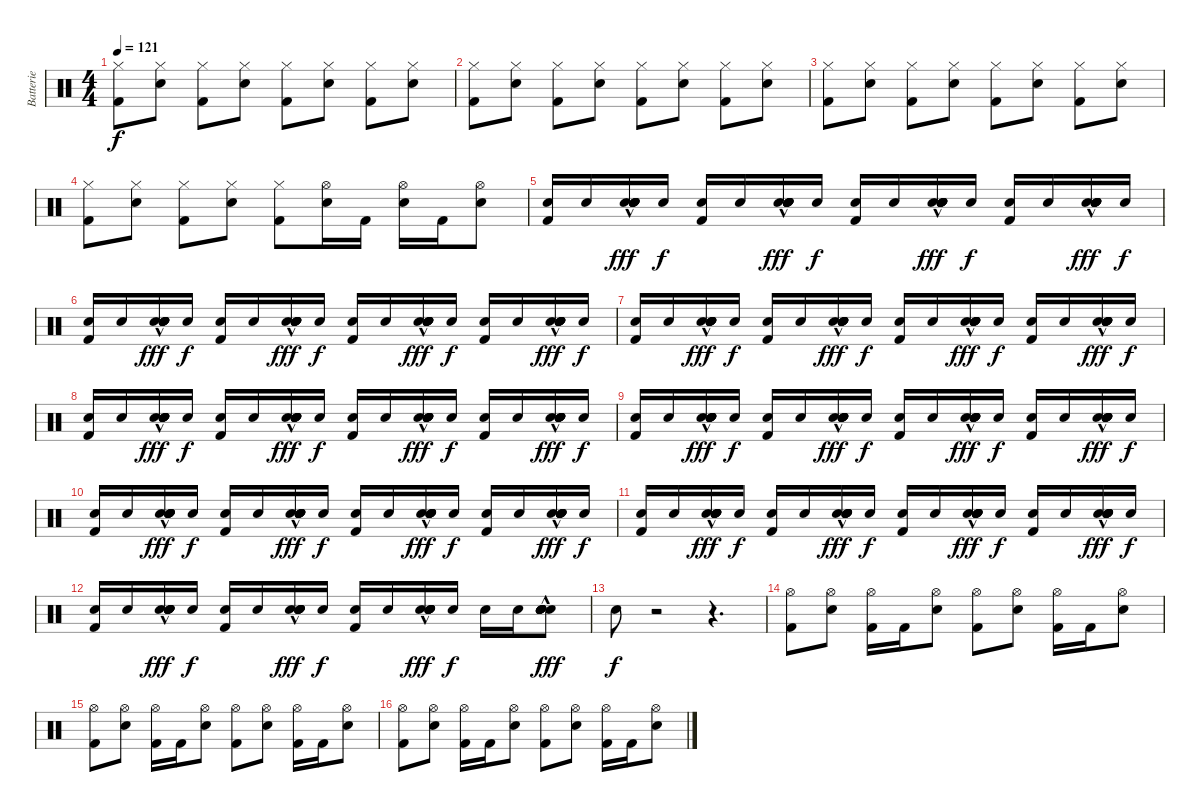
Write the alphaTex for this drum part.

\track ("Batterie" "Batterie") {instrument percussion}
\staff {score}
\articulation defaults
\ts (4 4)
\tempo 121
\clef neutral
\ks c
("Kick (hit) 2" "Hi-Hat (closed)").8{dy f} ("Electric Snare (hit)" "Hi-Hat (closed)").8 ("Kick (hit) 2" "Hi-Hat (closed)").8 ("Electric Snare (hit)" "Hi-Hat (closed)").8 ("Kick (hit) 2" "Hi-Hat (closed)").8 ("Electric Snare (hit)" "Hi-Hat (closed)").8 ("Kick (hit) 2" "Hi-Hat (closed)").8 ("Electric Snare (hit)" "Hi-Hat (closed)").8 |
("Kick (hit) 2" "Hi-Hat (closed)").8 ("Electric Snare (hit)" "Hi-Hat (closed)").8 ("Kick (hit) 2" "Hi-Hat (closed)").8 ("Electric Snare (hit)" "Hi-Hat (closed)").8 ("Kick (hit) 2" "Hi-Hat (closed)").8 ("Electric Snare (hit)" "Hi-Hat (closed)").8 ("Kick (hit) 2" "Hi-Hat (closed)").8 ("Electric Snare (hit)" "Hi-Hat (closed)").8 |
("Kick (hit) 2" "Hi-Hat (closed)").8 ("Electric Snare (hit)" "Hi-Hat (closed)").8 ("Kick (hit) 2" "Hi-Hat (closed)").8 ("Electric Snare (hit)" "Hi-Hat (closed)").8 ("Kick (hit) 2" "Hi-Hat (closed)").8 ("Electric Snare (hit)" "Hi-Hat (closed)").8 ("Kick (hit) 2" "Hi-Hat (closed)").8 ("Electric Snare (hit)" "Hi-Hat (closed)").8 |
("Kick (hit) 2" "Hi-Hat (closed)").8 ("Electric Snare (hit)" "Hi-Hat (closed)").8 ("Kick (hit) 2" "Hi-Hat (closed)").8 ("Electric Snare (hit)" "Hi-Hat (closed)").8 ("Kick (hit) 2" "Hi-Hat (closed)").8 ("Hi-Hat (open)" "Electric Snare (hit)").16 "Kick (hit) 2".16 ("Hi-Hat (open)" "Electric Snare (hit)").16 "Kick (hit) 2".16 ("Hi-Hat (open)" "Electric Snare (hit)").8 |
("Kick (hit) 2" "Electric Snare (hit)").16 "Electric Snare (hit)".16 ("Electric Snare (hit)"{hac} "Electric Snare (hit)"{hac} "Electric Snare (hit)"{hac} "Electric Snare (hit)"{hac} "Electric Snare (hit)"{hac} "Electric Snare (hit)"{hac}).16{dy fff} "Electric Snare (hit)".16{dy f} ("Kick (hit) 2" "Electric Snare (hit)").16 "Electric Snare (hit)".16 ("Electric Snare (hit)"{hac} "Electric Snare (hit)"{hac} "Electric Snare (hit)"{hac} "Electric Snare (hit)"{hac} "Electric Snare (hit)"{hac} "Electric Snare (hit)"{hac}).16{dy fff} "Electric Snare (hit)".16{dy f} ("Kick (hit) 2" "Electric Snare (hit)").16 "Electric Snare (hit)".16 ("Electric Snare (hit)"{hac} "Electric Snare (hit)"{hac} "Electric Snare (hit)"{hac} "Electric Snare (hit)"{hac} "Electric Snare (hit)"{hac} "Electric Snare (hit)"{hac}).16{dy fff} "Electric Snare (hit)".16{dy f} ("Kick (hit) 2" "Electric Snare (hit)").16 "Electric Snare (hit)".16 ("Electric Snare (hit)"{hac} "Electric Snare (hit)"{hac} "Electric Snare (hit)"{hac} "Electric Snare (hit)"{hac} "Electric Snare (hit)"{hac} "Electric Snare (hit)"{hac}).16{dy fff} "Electric Snare (hit)".16{dy f} |
("Kick (hit) 2" "Electric Snare (hit)").16 "Electric Snare (hit)".16 ("Electric Snare (hit)"{hac} "Electric Snare (hit)"{hac} "Electric Snare (hit)"{hac} "Electric Snare (hit)"{hac} "Electric Snare (hit)"{hac} "Electric Snare (hit)"{hac}).16{dy fff} "Electric Snare (hit)".16{dy f} ("Kick (hit) 2" "Electric Snare (hit)").16 "Electric Snare (hit)".16 ("Electric Snare (hit)"{hac} "Electric Snare (hit)"{hac} "Electric Snare (hit)"{hac} "Electric Snare (hit)"{hac} "Electric Snare (hit)"{hac} "Electric Snare (hit)"{hac}).16{dy fff} "Electric Snare (hit)".16{dy f} ("Kick (hit) 2" "Electric Snare (hit)").16 "Electric Snare (hit)".16 ("Electric Snare (hit)"{hac} "Electric Snare (hit)"{hac} "Electric Snare (hit)"{hac} "Electric Snare (hit)"{hac} "Electric Snare (hit)"{hac} "Electric Snare (hit)"{hac}).16{dy fff} "Electric Snare (hit)".16{dy f} ("Kick (hit) 2" "Electric Snare (hit)").16 "Electric Snare (hit)".16 ("Electric Snare (hit)"{hac} "Electric Snare (hit)"{hac} "Electric Snare (hit)"{hac} "Electric Snare (hit)"{hac} "Electric Snare (hit)"{hac} "Electric Snare (hit)"{hac}).16{dy fff} "Electric Snare (hit)".16{dy f} |
("Kick (hit) 2" "Electric Snare (hit)").16 "Electric Snare (hit)".16 ("Electric Snare (hit)"{hac} "Electric Snare (hit)"{hac} "Electric Snare (hit)"{hac} "Electric Snare (hit)"{hac} "Electric Snare (hit)"{hac} "Electric Snare (hit)"{hac}).16{dy fff} "Electric Snare (hit)".16{dy f} ("Kick (hit) 2" "Electric Snare (hit)").16 "Electric Snare (hit)".16 ("Electric Snare (hit)"{hac} "Electric Snare (hit)"{hac} "Electric Snare (hit)"{hac} "Electric Snare (hit)"{hac} "Electric Snare (hit)"{hac} "Electric Snare (hit)"{hac}).16{dy fff} "Electric Snare (hit)".16{dy f} ("Kick (hit) 2" "Electric Snare (hit)").16 "Electric Snare (hit)".16 ("Electric Snare (hit)"{hac} "Electric Snare (hit)"{hac} "Electric Snare (hit)"{hac} "Electric Snare (hit)"{hac} "Electric Snare (hit)"{hac} "Electric Snare (hit)"{hac}).16{dy fff} "Electric Snare (hit)".16{dy f} ("Kick (hit) 2" "Electric Snare (hit)").16 "Electric Snare (hit)".16 ("Electric Snare (hit)"{hac} "Electric Snare (hit)"{hac} "Electric Snare (hit)"{hac} "Electric Snare (hit)"{hac} "Electric Snare (hit)"{hac} "Electric Snare (hit)"{hac}).16{dy fff} "Electric Snare (hit)".16{dy f} |
("Kick (hit) 2" "Electric Snare (hit)").16 "Electric Snare (hit)".16 ("Electric Snare (hit)"{hac} "Electric Snare (hit)"{hac} "Electric Snare (hit)"{hac} "Electric Snare (hit)"{hac} "Electric Snare (hit)"{hac} "Electric Snare (hit)"{hac}).16{dy fff} "Electric Snare (hit)".16{dy f} ("Kick (hit) 2" "Electric Snare (hit)").16 "Electric Snare (hit)".16 ("Electric Snare (hit)"{hac} "Electric Snare (hit)"{hac} "Electric Snare (hit)"{hac} "Electric Snare (hit)"{hac} "Electric Snare (hit)"{hac} "Electric Snare (hit)"{hac}).16{dy fff} "Electric Snare (hit)".16{dy f} ("Kick (hit) 2" "Electric Snare (hit)").16 "Electric Snare (hit)".16 ("Electric Snare (hit)"{hac} "Electric Snare (hit)"{hac} "Electric Snare (hit)"{hac} "Electric Snare (hit)"{hac} "Electric Snare (hit)"{hac} "Electric Snare (hit)"{hac}).16{dy fff} "Electric Snare (hit)".16{dy f} ("Kick (hit) 2" "Electric Snare (hit)").16 "Electric Snare (hit)".16 ("Electric Snare (hit)"{hac} "Electric Snare (hit)"{hac} "Electric Snare (hit)"{hac} "Electric Snare (hit)"{hac} "Electric Snare (hit)"{hac} "Electric Snare (hit)"{hac}).16{dy fff} "Electric Snare (hit)".16{dy f} |
("Kick (hit) 2" "Electric Snare (hit)").16 "Electric Snare (hit)".16 ("Electric Snare (hit)"{hac} "Electric Snare (hit)"{hac} "Electric Snare (hit)"{hac} "Electric Snare (hit)"{hac} "Electric Snare (hit)"{hac} "Electric Snare (hit)"{hac}).16{dy fff} "Electric Snare (hit)".16{dy f} ("Kick (hit) 2" "Electric Snare (hit)").16 "Electric Snare (hit)".16 ("Electric Snare (hit)"{hac} "Electric Snare (hit)"{hac} "Electric Snare (hit)"{hac} "Electric Snare (hit)"{hac} "Electric Snare (hit)"{hac} "Electric Snare (hit)"{hac}).16{dy fff} "Electric Snare (hit)".16{dy f} ("Kick (hit) 2" "Electric Snare (hit)").16 "Electric Snare (hit)".16 ("Electric Snare (hit)"{hac} "Electric Snare (hit)"{hac} "Electric Snare (hit)"{hac} "Electric Snare (hit)"{hac} "Electric Snare (hit)"{hac} "Electric Snare (hit)"{hac}).16{dy fff} "Electric Snare (hit)".16{dy f} ("Kick (hit) 2" "Electric Snare (hit)").16 "Electric Snare (hit)".16 ("Electric Snare (hit)"{hac} "Electric Snare (hit)"{hac} "Electric Snare (hit)"{hac} "Electric Snare (hit)"{hac} "Electric Snare (hit)"{hac} "Electric Snare (hit)"{hac}).16{dy fff} "Electric Snare (hit)".16{dy f} |
("Kick (hit) 2" "Electric Snare (hit)").16 "Electric Snare (hit)".16 ("Electric Snare (hit)"{hac} "Electric Snare (hit)"{hac} "Electric Snare (hit)"{hac} "Electric Snare (hit)"{hac} "Electric Snare (hit)"{hac} "Electric Snare (hit)"{hac}).16{dy fff} "Electric Snare (hit)".16{dy f} ("Kick (hit) 2" "Electric Snare (hit)").16 "Electric Snare (hit)".16 ("Electric Snare (hit)"{hac} "Electric Snare (hit)"{hac} "Electric Snare (hit)"{hac} "Electric Snare (hit)"{hac} "Electric Snare (hit)"{hac} "Electric Snare (hit)"{hac}).16{dy fff} "Electric Snare (hit)".16{dy f} ("Kick (hit) 2" "Electric Snare (hit)").16 "Electric Snare (hit)".16 ("Electric Snare (hit)"{hac} "Electric Snare (hit)"{hac} "Electric Snare (hit)"{hac} "Electric Snare (hit)"{hac} "Electric Snare (hit)"{hac} "Electric Snare (hit)"{hac}).16{dy fff} "Electric Snare (hit)".16{dy f} ("Kick (hit) 2" "Electric Snare (hit)").16 "Electric Snare (hit)".16 ("Electric Snare (hit)"{hac} "Electric Snare (hit)"{hac} "Electric Snare (hit)"{hac} "Electric Snare (hit)"{hac} "Electric Snare (hit)"{hac} "Electric Snare (hit)"{hac}).16{dy fff} "Electric Snare (hit)".16{dy f} |
("Kick (hit) 2" "Electric Snare (hit)").16 "Electric Snare (hit)".16 ("Electric Snare (hit)"{hac} "Electric Snare (hit)"{hac} "Electric Snare (hit)"{hac} "Electric Snare (hit)"{hac} "Electric Snare (hit)"{hac} "Electric Snare (hit)"{hac}).16{dy fff} "Electric Snare (hit)".16{dy f} ("Kick (hit) 2" "Electric Snare (hit)").16 "Electric Snare (hit)".16 ("Electric Snare (hit)"{hac} "Electric Snare (hit)"{hac} "Electric Snare (hit)"{hac} "Electric Snare (hit)"{hac} "Electric Snare (hit)"{hac} "Electric Snare (hit)"{hac}).16{dy fff} "Electric Snare (hit)".16{dy f} ("Kick (hit) 2" "Electric Snare (hit)").16 "Electric Snare (hit)".16 ("Electric Snare (hit)"{hac} "Electric Snare (hit)"{hac} "Electric Snare (hit)"{hac} "Electric Snare (hit)"{hac} "Electric Snare (hit)"{hac} "Electric Snare (hit)"{hac}).16{dy fff} "Electric Snare (hit)".16{dy f} ("Kick (hit) 2" "Electric Snare (hit)").16 "Electric Snare (hit)".16 ("Electric Snare (hit)"{hac} "Electric Snare (hit)"{hac} "Electric Snare (hit)"{hac} "Electric Snare (hit)"{hac} "Electric Snare (hit)"{hac} "Electric Snare (hit)"{hac}).16{dy fff} "Electric Snare (hit)".16{dy f} |
("Kick (hit) 2" "Electric Snare (hit)").16 "Electric Snare (hit)".16 ("Electric Snare (hit)"{hac} "Electric Snare (hit)"{hac} "Electric Snare (hit)"{hac} "Electric Snare (hit)"{hac} "Electric Snare (hit)"{hac} "Electric Snare (hit)"{hac}).16{dy fff} "Electric Snare (hit)".16{dy f} ("Kick (hit) 2" "Electric Snare (hit)").16 "Electric Snare (hit)".16 ("Electric Snare (hit)"{hac} "Electric Snare (hit)"{hac} "Electric Snare (hit)"{hac} "Electric Snare (hit)"{hac} "Electric Snare (hit)"{hac} "Electric Snare (hit)"{hac}).16{dy fff} "Electric Snare (hit)".16{dy f} ("Kick (hit) 2" "Electric Snare (hit)").16 "Electric Snare (hit)".16 ("Electric Snare (hit)"{hac} "Electric Snare (hit)"{hac} "Electric Snare (hit)"{hac} "Electric Snare (hit)"{hac} "Electric Snare (hit)"{hac} "Electric Snare (hit)"{hac}).16{dy fff} "Electric Snare (hit)".16{dy f} "Electric Snare (hit)".16 "Electric Snare (hit)".16 ("Electric Snare (hit)"{hac} "Electric Snare (hit)"{hac} "Electric Snare (hit)"{hac} "Electric Snare (hit)"{hac} "Electric Snare (hit)"{hac} "Electric Snare (hit)"{hac}).8{dy fff} |
"Electric Snare (hit)".8{dy f} r.2 r.4{d} |
("Kick (hit) 2" "Hi-Hat (open)").8 ("Electric Snare (hit)" "Hi-Hat (open)").8 ("Kick (hit) 2" "Hi-Hat (open)").16 "Kick (hit) 2".16 ("Electric Snare (hit)" "Hi-Hat (open)").8 ("Kick (hit) 2" "Hi-Hat (open)").8 ("Electric Snare (hit)" "Hi-Hat (open)").8 ("Kick (hit) 2" "Hi-Hat (open)").16 "Kick (hit) 2".16 ("Electric Snare (hit)" "Hi-Hat (open)").8 |
("Kick (hit) 2" "Hi-Hat (open)").8 ("Electric Snare (hit)" "Hi-Hat (open)").8 ("Kick (hit) 2" "Hi-Hat (open)").16 "Kick (hit) 2".16 ("Electric Snare (hit)" "Hi-Hat (open)").8 ("Kick (hit) 2" "Hi-Hat (open)").8 ("Electric Snare (hit)" "Hi-Hat (open)").8 ("Kick (hit) 2" "Hi-Hat (open)").16 "Kick (hit) 2".16 ("Electric Snare (hit)" "Hi-Hat (open)").8 |
("Kick (hit) 2" "Hi-Hat (open)").8 ("Electric Snare (hit)" "Hi-Hat (open)").8 ("Kick (hit) 2" "Hi-Hat (open)").16 "Kick (hit) 2".16 ("Electric Snare (hit)" "Hi-Hat (open)").8 ("Kick (hit) 2" "Hi-Hat (open)").8 ("Electric Snare (hit)" "Hi-Hat (open)").8 ("Kick (hit) 2" "Hi-Hat (open)").16 "Kick (hit) 2".16 ("Electric Snare (hit)" "Hi-Hat (open)").8
